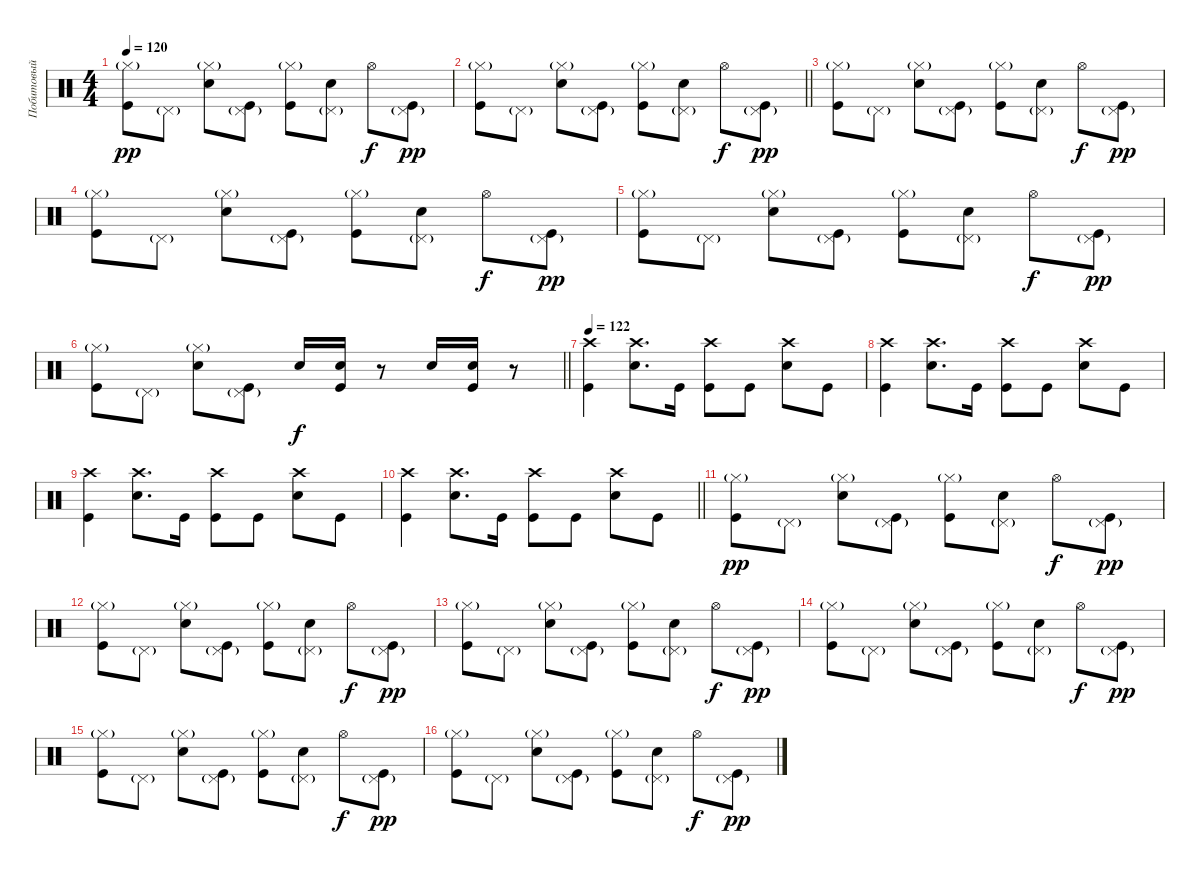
\track ("Побитовый" "Побитовый") {instrument percussion}
\staff {score}
\articulation defaults
\ts (4 4)
\tempo 120
\clef neutral
\ks c
("Hi-Hat (closed)"{g} "Kick (hit)").8{dy pp} "Pedal Hi-Hat (hit)"{g}.8 ("Hi-Hat (closed)"{g} "Snare (hit) 2").8 ("Pedal Hi-Hat (hit)"{g} "Kick (hit)").8 ("Hi-Hat (closed)"{g} "Kick (hit)").8 ("Pedal Hi-Hat (hit)"{g} "Snare (hit) 2").8 "Hi-Hat (open)".8{dy f} ("Pedal Hi-Hat (hit)"{g} "Kick (hit)").8{dy pp} |
\barLineRight lightlight
("Hi-Hat (closed)"{g} "Kick (hit)").8 "Pedal Hi-Hat (hit)"{g}.8 ("Hi-Hat (closed)"{g} "Snare (hit) 2").8 ("Pedal Hi-Hat (hit)"{g} "Kick (hit)").8 ("Hi-Hat (closed)"{g} "Kick (hit)").8 ("Pedal Hi-Hat (hit)"{g} "Snare (hit) 2").8 "Hi-Hat (open)".8{dy f} ("Pedal Hi-Hat (hit)"{g} "Kick (hit)").8{dy pp} |
("Hi-Hat (closed)"{g} "Kick (hit)").8 "Pedal Hi-Hat (hit)"{g}.8 ("Hi-Hat (closed)"{g} "Snare (hit) 2").8 ("Pedal Hi-Hat (hit)"{g} "Kick (hit)").8 ("Hi-Hat (closed)"{g} "Kick (hit)").8 ("Pedal Hi-Hat (hit)"{g} "Snare (hit) 2").8 "Hi-Hat (open)".8{dy f} ("Pedal Hi-Hat (hit)"{g} "Kick (hit)").8{dy pp} |
("Hi-Hat (closed)"{g} "Kick (hit)").8 "Pedal Hi-Hat (hit)"{g}.8 ("Hi-Hat (closed)"{g} "Snare (hit) 2").8 ("Pedal Hi-Hat (hit)"{g} "Kick (hit)").8 ("Hi-Hat (closed)"{g} "Kick (hit)").8 ("Pedal Hi-Hat (hit)"{g} "Snare (hit) 2").8 "Hi-Hat (open)".8{dy f} ("Pedal Hi-Hat (hit)"{g} "Kick (hit)").8{dy pp} |
("Hi-Hat (closed)"{g} "Kick (hit)").8 "Pedal Hi-Hat (hit)"{g}.8 ("Hi-Hat (closed)"{g} "Snare (hit) 2").8 ("Pedal Hi-Hat (hit)"{g} "Kick (hit)").8 ("Hi-Hat (closed)"{g} "Kick (hit)").8 ("Pedal Hi-Hat (hit)"{g} "Snare (hit) 2").8 "Hi-Hat (open)".8{dy f} ("Pedal Hi-Hat (hit)"{g} "Kick (hit)").8{dy pp} |
\barLineRight lightlight
("Hi-Hat (closed)"{g} "Kick (hit)").8 "Pedal Hi-Hat (hit)"{g}.8 ("Hi-Hat (closed)"{g} "Snare (hit) 2").8 ("Pedal Hi-Hat (hit)"{g} "Kick (hit)").8 "Snare (hit) 2".16{dy f} ("Snare (hit) 2" "Kick (hit)").16 r.8 "Snare (hit) 2".16 ("Snare (hit) 2" "Kick (hit)").16 r.8 |
\tempo 122
("Crash high (hit)" "Kick (hit)").4 ("Crash high (hit)" "Snare (hit) 2").8{d} "Kick (hit)".16 ("Crash high (hit)" "Kick (hit)").8 "Kick (hit)".8 ("Crash high (hit)" "Snare (hit) 2").8 "Kick (hit)".8 |
("Crash high (hit)" "Kick (hit)").4 ("Crash high (hit)" "Snare (hit) 2").8{d} "Kick (hit)".16 ("Crash high (hit)" "Kick (hit)").8 "Kick (hit)".8 ("Crash high (hit)" "Snare (hit) 2").8 "Kick (hit)".8 |
("Crash high (hit)" "Kick (hit)").4 ("Crash high (hit)" "Snare (hit) 2").8{d} "Kick (hit)".16 ("Crash high (hit)" "Kick (hit)").8 "Kick (hit)".8 ("Crash high (hit)" "Snare (hit) 2").8 "Kick (hit)".8 |
\barLineRight lightlight
("Crash high (hit)" "Kick (hit)").4 ("Crash high (hit)" "Snare (hit) 2").8{d} "Kick (hit)".16 ("Crash high (hit)" "Kick (hit)").8 "Kick (hit)".8 ("Crash high (hit)" "Snare (hit) 2").8 "Kick (hit)".8 |
("Hi-Hat (closed)"{g} "Kick (hit)").8{dy pp} "Pedal Hi-Hat (hit)"{g}.8 ("Hi-Hat (closed)"{g} "Snare (hit) 2").8 ("Pedal Hi-Hat (hit)"{g} "Kick (hit)").8 ("Hi-Hat (closed)"{g} "Kick (hit)").8 ("Pedal Hi-Hat (hit)"{g} "Snare (hit) 2").8 "Hi-Hat (open)".8{dy f} ("Pedal Hi-Hat (hit)"{g} "Kick (hit)").8{dy pp} |
("Hi-Hat (closed)"{g} "Kick (hit)").8 "Pedal Hi-Hat (hit)"{g}.8 ("Hi-Hat (closed)"{g} "Snare (hit) 2").8 ("Pedal Hi-Hat (hit)"{g} "Kick (hit)").8 ("Hi-Hat (closed)"{g} "Kick (hit)").8 ("Pedal Hi-Hat (hit)"{g} "Snare (hit) 2").8 "Hi-Hat (open)".8{dy f} ("Pedal Hi-Hat (hit)"{g} "Kick (hit)").8{dy pp} |
("Hi-Hat (closed)"{g} "Kick (hit)").8 "Pedal Hi-Hat (hit)"{g}.8 ("Hi-Hat (closed)"{g} "Snare (hit) 2").8 ("Pedal Hi-Hat (hit)"{g} "Kick (hit)").8 ("Hi-Hat (closed)"{g} "Kick (hit)").8 ("Pedal Hi-Hat (hit)"{g} "Snare (hit) 2").8 "Hi-Hat (open)".8{dy f} ("Pedal Hi-Hat (hit)"{g} "Kick (hit)").8{dy pp} |
("Hi-Hat (closed)"{g} "Kick (hit)").8 "Pedal Hi-Hat (hit)"{g}.8 ("Hi-Hat (closed)"{g} "Snare (hit) 2").8 ("Pedal Hi-Hat (hit)"{g} "Kick (hit)").8 ("Hi-Hat (closed)"{g} "Kick (hit)").8 ("Pedal Hi-Hat (hit)"{g} "Snare (hit) 2").8 "Hi-Hat (open)".8{dy f} ("Pedal Hi-Hat (hit)"{g} "Kick (hit)").8{dy pp} |
("Hi-Hat (closed)"{g} "Kick (hit)").8 "Pedal Hi-Hat (hit)"{g}.8 ("Hi-Hat (closed)"{g} "Snare (hit) 2").8 ("Pedal Hi-Hat (hit)"{g} "Kick (hit)").8 ("Hi-Hat (closed)"{g} "Kick (hit)").8 ("Pedal Hi-Hat (hit)"{g} "Snare (hit) 2").8 "Hi-Hat (open)".8{dy f} ("Pedal Hi-Hat (hit)"{g} "Kick (hit)").8{dy pp} |
("Hi-Hat (closed)"{g} "Kick (hit)").8 "Pedal Hi-Hat (hit)"{g}.8 ("Hi-Hat (closed)"{g} "Snare (hit) 2").8 ("Pedal Hi-Hat (hit)"{g} "Kick (hit)").8 ("Hi-Hat (closed)"{g} "Kick (hit)").8 ("Pedal Hi-Hat (hit)"{g} "Snare (hit) 2").8 "Hi-Hat (open)".8{dy f} ("Pedal Hi-Hat (hit)"{g} "Kick (hit)").8{dy pp}
